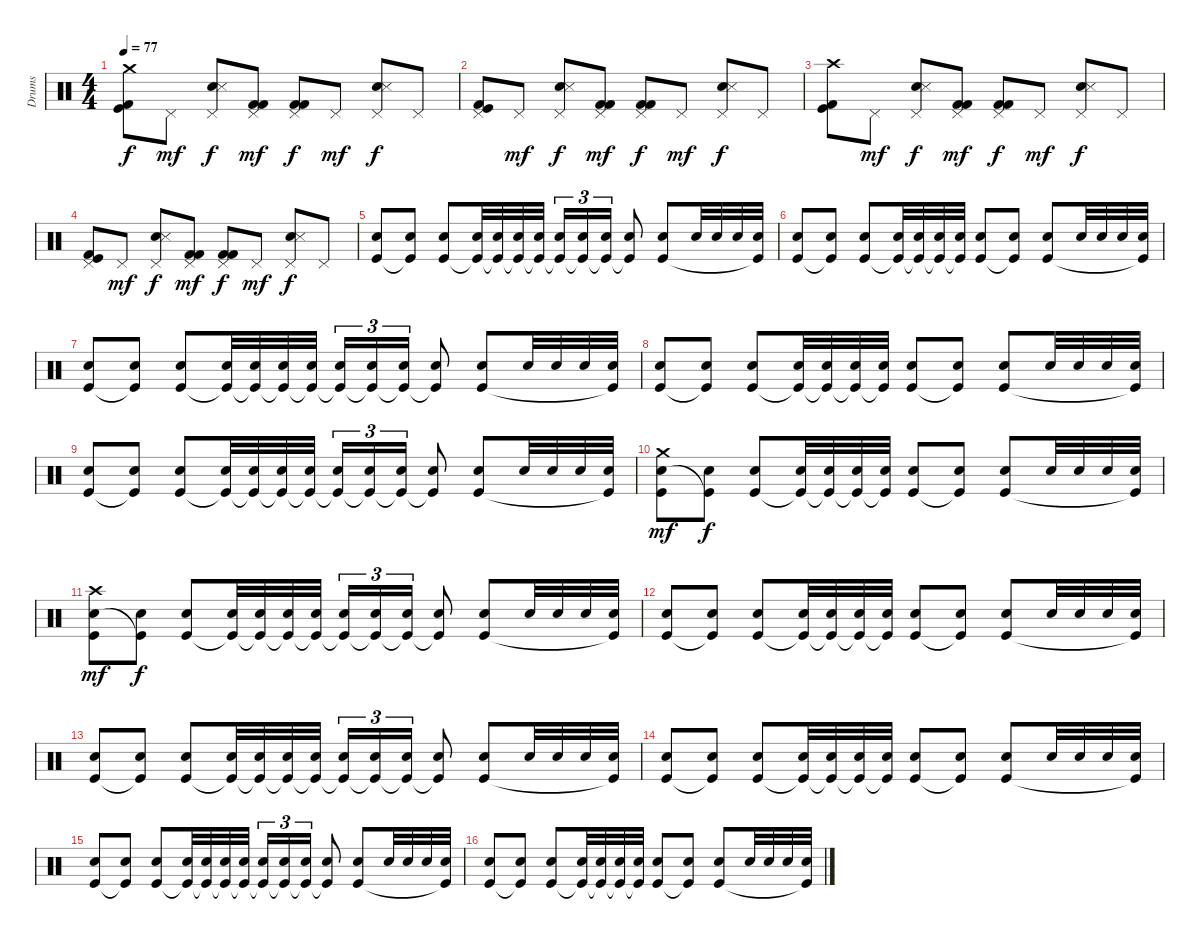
\track ("Drums" "Drums") {instrument percussion}
\staff {score}
\articulation defaults
\ts (4 4)
\tempo 77
\clef neutral
\ks c
("Crash medium (hit)" "Kick (hit) 2" "Kick (hit)").8{dy f} "Pedal Hi-Hat (hit)".8{dy mf} ("Pedal Hi-Hat (hit)" "Snare (hit) 2" "Snare (side stick) 3").8{dy f} ("Pedal Hi-Hat (hit)" "Kick (hit) 2" "Kick (hit) 2").8{dy mf} ("Pedal Hi-Hat (hit)" "Kick (hit) 2" "Kick (hit) 2").8{dy f} "Pedal Hi-Hat (hit)".8{dy mf} ("Pedal Hi-Hat (hit)" "Snare (hit) 2" "Snare (side stick) 3").8{dy f} "Pedal Hi-Hat (hit)".8 |
("Pedal Hi-Hat (hit)" "Kick (hit) 2" "Kick (hit)").8 "Pedal Hi-Hat (hit)".8{dy mf} ("Pedal Hi-Hat (hit)" "Snare (hit) 2" "Snare (side stick) 3").8{dy f} ("Pedal Hi-Hat (hit)" "Kick (hit) 2" "Kick (hit) 2").8{dy mf} ("Pedal Hi-Hat (hit)" "Kick (hit) 2" "Kick (hit) 2").8{dy f} "Pedal Hi-Hat (hit)".8{dy mf} ("Pedal Hi-Hat (hit)" "Snare (hit) 2" "Snare (side stick) 3").8{dy f} "Pedal Hi-Hat (hit)".8 |
("Crash high (hit)" "Kick (hit) 2" "Kick (hit)").8 "Pedal Hi-Hat (hit)".8{dy mf} ("Pedal Hi-Hat (hit)" "Snare (hit) 2" "Snare (side stick) 3").8{dy f} ("Pedal Hi-Hat (hit)" "Kick (hit) 2" "Kick (hit) 2").8{dy mf} ("Pedal Hi-Hat (hit)" "Kick (hit) 2" "Kick (hit) 2").8{dy f} "Pedal Hi-Hat (hit)".8{dy mf} ("Pedal Hi-Hat (hit)" "Snare (hit) 2" "Snare (side stick) 3").8{dy f} "Pedal Hi-Hat (hit)".8 |
("Pedal Hi-Hat (hit)" "Kick (hit) 2" "Kick (hit)").8 "Pedal Hi-Hat (hit)".8{dy mf} ("Pedal Hi-Hat (hit)" "Snare (hit) 2" "Snare (side stick) 3").8{dy f} ("Pedal Hi-Hat (hit)" "Kick (hit) 2" "Kick (hit) 2").8{dy mf} ("Pedal Hi-Hat (hit)" "Kick (hit) 2" "Kick (hit) 2").8{dy f} "Pedal Hi-Hat (hit)".8{dy mf} ("Pedal Hi-Hat (hit)" "Snare (hit) 2" "Snare (side stick) 3").8{dy f} "Pedal Hi-Hat (hit)".8 |
("Snare (hit) 2" "Kick (hit)").8 ("Snare (hit) 2" "Kick (hit)"{t}).8 ("Snare (hit) 2" "Kick (hit)").8 ("Snare (hit) 2" "Kick (hit)"{t}).32 ("Snare (hit) 2" "Kick (hit)"{t}).32 ("Snare (hit) 2" "Kick (hit)"{t}).32 ("Snare (hit) 2" "Kick (hit)"{t}).32 ("Snare (hit) 2" "Kick (hit)"{t}).16{tu (3 2)} ("Snare (hit) 2" "Kick (hit)"{t}).16{tu (3 2)} ("Snare (hit) 2" "Kick (hit)"{t}).16{tu (3 2)} ("Snare (hit) 2" "Kick (hit)"{t}).8 ("Snare (hit) 2" "Kick (hit)").8 "Snare (hit) 2".32 "Snare (hit) 2".32 "Snare (hit) 2".32 ("Snare (hit) 2" "Kick (hit)"{t}).32 |
("Snare (hit) 2" "Kick (hit)").8 ("Snare (hit) 2" "Kick (hit)"{t}).8 ("Snare (hit) 2" "Kick (hit)").8 ("Snare (hit) 2" "Kick (hit)"{t}).32 ("Snare (hit) 2" "Kick (hit)"{t}).32 ("Snare (hit) 2" "Kick (hit)"{t}).32 ("Snare (hit) 2" "Kick (hit)"{t}).32 ("Snare (hit) 2" "Kick (hit)").8 ("Snare (hit) 2" "Kick (hit)"{t}).8 ("Snare (hit) 2" "Kick (hit)").8 "Snare (hit) 2".32 "Snare (hit) 2".32 "Snare (hit) 2".32 ("Snare (hit) 2" "Kick (hit)"{t}).32 |
("Snare (hit) 2" "Kick (hit)").8 ("Snare (hit) 2" "Kick (hit)"{t}).8 ("Snare (hit) 2" "Kick (hit)").8 ("Snare (hit) 2" "Kick (hit)"{t}).32 ("Snare (hit) 2" "Kick (hit)"{t}).32 ("Snare (hit) 2" "Kick (hit)"{t}).32 ("Snare (hit) 2" "Kick (hit)"{t}).32 ("Snare (hit) 2" "Kick (hit)"{t}).16{tu (3 2)} ("Snare (hit) 2" "Kick (hit)"{t}).16{tu (3 2)} ("Snare (hit) 2" "Kick (hit)"{t}).16{tu (3 2)} ("Snare (hit) 2" "Kick (hit)"{t}).8 ("Snare (hit) 2" "Kick (hit)").8 "Snare (hit) 2".32 "Snare (hit) 2".32 "Snare (hit) 2".32 ("Snare (hit) 2" "Kick (hit)"{t}).32 |
("Snare (hit) 2" "Kick (hit)").8 ("Snare (hit) 2" "Kick (hit)"{t}).8 ("Snare (hit) 2" "Kick (hit)").8 ("Snare (hit) 2" "Kick (hit)"{t}).32 ("Snare (hit) 2" "Kick (hit)"{t}).32 ("Snare (hit) 2" "Kick (hit)"{t}).32 ("Snare (hit) 2" "Kick (hit)"{t}).32 ("Snare (hit) 2" "Kick (hit)").8 ("Snare (hit) 2" "Kick (hit)"{t}).8 ("Snare (hit) 2" "Kick (hit)").8 "Snare (hit) 2".32 "Snare (hit) 2".32 "Snare (hit) 2".32 ("Snare (hit) 2" "Kick (hit)"{t}).32 |
("Snare (hit) 2" "Kick (hit)").8 ("Snare (hit) 2" "Kick (hit)"{t}).8 ("Snare (hit) 2" "Kick (hit)").8 ("Snare (hit) 2" "Kick (hit)"{t}).32 ("Snare (hit) 2" "Kick (hit)"{t}).32 ("Snare (hit) 2" "Kick (hit)"{t}).32 ("Snare (hit) 2" "Kick (hit)"{t}).32 ("Snare (hit) 2" "Kick (hit)"{t}).16{tu (3 2)} ("Snare (hit) 2" "Kick (hit)"{t}).16{tu (3 2)} ("Snare (hit) 2" "Kick (hit)"{t}).16{tu (3 2)} ("Snare (hit) 2" "Kick (hit)"{t}).8 ("Snare (hit) 2" "Kick (hit)").8 "Snare (hit) 2".32 "Snare (hit) 2".32 "Snare (hit) 2".32 ("Snare (hit) 2" "Kick (hit)"{t}).32 |
("Crash medium (hit)" "Snare (hit) 2" "Kick (hit)").8{dy mf} ("Snare (hit) 2" "Kick (hit)"{t}).8{dy f} ("Snare (hit) 2" "Kick (hit)").8 ("Snare (hit) 2" "Kick (hit)"{t}).32 ("Snare (hit) 2" "Kick (hit)"{t}).32 ("Snare (hit) 2" "Kick (hit)"{t}).32 ("Snare (hit) 2" "Kick (hit)"{t}).32 ("Snare (hit) 2" "Kick (hit)").8 ("Snare (hit) 2" "Kick (hit)"{t}).8 ("Snare (hit) 2" "Kick (hit)").8 "Snare (hit) 2".32 "Snare (hit) 2".32 "Snare (hit) 2".32 ("Snare (hit) 2" "Kick (hit)"{t}).32 |
("Crash high (hit)" "Snare (hit) 2" "Kick (hit)").8{dy mf} ("Snare (hit) 2" "Kick (hit)"{t}).8{dy f} ("Snare (hit) 2" "Kick (hit)").8 ("Snare (hit) 2" "Kick (hit)"{t}).32 ("Snare (hit) 2" "Kick (hit)"{t}).32 ("Snare (hit) 2" "Kick (hit)"{t}).32 ("Snare (hit) 2" "Kick (hit)"{t}).32 ("Snare (hit) 2" "Kick (hit)"{t}).16{tu (3 2)} ("Snare (hit) 2" "Kick (hit)"{t}).16{tu (3 2)} ("Snare (hit) 2" "Kick (hit)"{t}).16{tu (3 2)} ("Snare (hit) 2" "Kick (hit)"{t}).8 ("Snare (hit) 2" "Kick (hit)").8 "Snare (hit) 2".32 "Snare (hit) 2".32 "Snare (hit) 2".32 ("Snare (hit) 2" "Kick (hit)"{t}).32 |
("Snare (hit) 2" "Kick (hit)").8 ("Snare (hit) 2" "Kick (hit)"{t}).8 ("Snare (hit) 2" "Kick (hit)").8 ("Snare (hit) 2" "Kick (hit)"{t}).32 ("Snare (hit) 2" "Kick (hit)"{t}).32 ("Snare (hit) 2" "Kick (hit)"{t}).32 ("Snare (hit) 2" "Kick (hit)"{t}).32 ("Snare (hit) 2" "Kick (hit)").8 ("Snare (hit) 2" "Kick (hit)"{t}).8 ("Snare (hit) 2" "Kick (hit)").8 "Snare (hit) 2".32 "Snare (hit) 2".32 "Snare (hit) 2".32 ("Snare (hit) 2" "Kick (hit)"{t}).32 |
("Snare (hit) 2" "Kick (hit)").8 ("Snare (hit) 2" "Kick (hit)"{t}).8 ("Snare (hit) 2" "Kick (hit)").8 ("Snare (hit) 2" "Kick (hit)"{t}).32 ("Snare (hit) 2" "Kick (hit)"{t}).32 ("Snare (hit) 2" "Kick (hit)"{t}).32 ("Snare (hit) 2" "Kick (hit)"{t}).32 ("Snare (hit) 2" "Kick (hit)"{t}).16{tu (3 2)} ("Snare (hit) 2" "Kick (hit)"{t}).16{tu (3 2)} ("Snare (hit) 2" "Kick (hit)"{t}).16{tu (3 2)} ("Snare (hit) 2" "Kick (hit)"{t}).8 ("Snare (hit) 2" "Kick (hit)").8 "Snare (hit) 2".32 "Snare (hit) 2".32 "Snare (hit) 2".32 ("Snare (hit) 2" "Kick (hit)"{t}).32 |
("Snare (hit) 2" "Kick (hit)").8 ("Snare (hit) 2" "Kick (hit)"{t}).8 ("Snare (hit) 2" "Kick (hit)").8 ("Snare (hit) 2" "Kick (hit)"{t}).32 ("Snare (hit) 2" "Kick (hit)"{t}).32 ("Snare (hit) 2" "Kick (hit)"{t}).32 ("Snare (hit) 2" "Kick (hit)"{t}).32 ("Snare (hit) 2" "Kick (hit)").8 ("Snare (hit) 2" "Kick (hit)"{t}).8 ("Snare (hit) 2" "Kick (hit)").8 "Snare (hit) 2".32 "Snare (hit) 2".32 "Snare (hit) 2".32 ("Snare (hit) 2" "Kick (hit)"{t}).32 |
("Snare (hit) 2" "Kick (hit)").8 ("Snare (hit) 2" "Kick (hit)"{t}).8 ("Snare (hit) 2" "Kick (hit)").8 ("Snare (hit) 2" "Kick (hit)"{t}).32 ("Snare (hit) 2" "Kick (hit)"{t}).32 ("Snare (hit) 2" "Kick (hit)"{t}).32 ("Snare (hit) 2" "Kick (hit)"{t}).32 ("Snare (hit) 2" "Kick (hit)"{t}).16{tu (3 2)} ("Snare (hit) 2" "Kick (hit)"{t}).16{tu (3 2)} ("Snare (hit) 2" "Kick (hit)"{t}).16{tu (3 2)} ("Snare (hit) 2" "Kick (hit)"{t}).8 ("Snare (hit) 2" "Kick (hit)").8 "Snare (hit) 2".32 "Snare (hit) 2".32 "Snare (hit) 2".32 ("Snare (hit) 2" "Kick (hit)"{t}).32 |
("Snare (hit) 2" "Kick (hit)").8 ("Snare (hit) 2" "Kick (hit)"{t}).8 ("Snare (hit) 2" "Kick (hit)").8 ("Snare (hit) 2" "Kick (hit)"{t}).32 ("Snare (hit) 2" "Kick (hit)"{t}).32 ("Snare (hit) 2" "Kick (hit)"{t}).32 ("Snare (hit) 2" "Kick (hit)"{t}).32 ("Snare (hit) 2" "Kick (hit)").8 ("Snare (hit) 2" "Kick (hit)"{t}).8 ("Snare (hit) 2" "Kick (hit)").8 "Snare (hit) 2".32 "Snare (hit) 2".32 "Snare (hit) 2".32 ("Snare (hit) 2" "Kick (hit)"{t}).32
